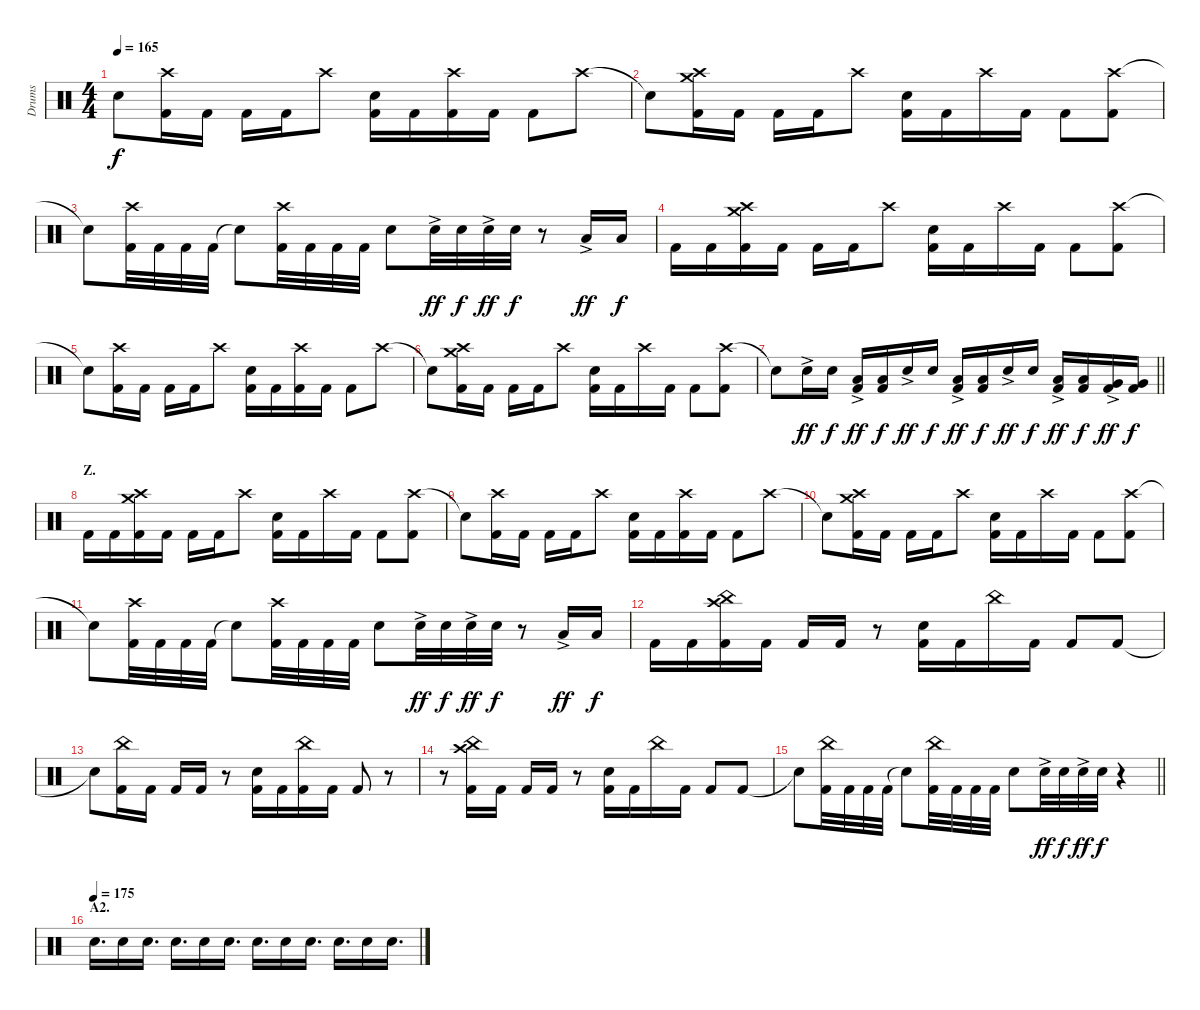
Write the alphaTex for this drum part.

\track ("Drums" "Drums") {instrument percussion}
\staff {score}
\articulation defaults
\ts (4 4)
\tempo 165
\clef neutral
\ks c "Snare (hit)"{t}.8{dy f}
("Crash high (hit)" "Kick (hit) 2").16 "Kick (hit) 2".16 "Kick (hit) 2".16 "Kick (hit) 2".16 "Crash high (hit)".8 ("Electric Snare (hit)" "Kick (hit) 2").16 "Kick (hit) 2".16 ("Crash high (hit)" "Kick (hit) 2").16 "Kick (hit) 2".16 "Kick (hit) 2".8 "Crash high (hit)".8 |
"Snare (hit)"{t}.8 ("Crash medium (hit)" "Crash high (hit)" "Kick (hit) 2").16 "Kick (hit) 2".16 "Kick (hit) 2".16 "Kick (hit) 2".16 "Crash high (hit)".8 ("Electric Snare (hit)" "Kick (hit) 2").16 "Kick (hit) 2".16 "Crash high (hit)".16 "Kick (hit) 2".16 "Kick (hit) 2".8 ("Crash high (hit)" "Kick (hit) 2").8 |
"Snare (hit)"{t}.8 ("Crash high (hit)" "Kick (hit) 2").32 "Kick (hit) 2".32 "Kick (hit) 2".32 "Kick (hit) 2".32 "Snare (hit)"{t}.8 ("Crash high (hit)" "Kick (hit) 2").32 "Kick (hit) 2".32 "Kick (hit) 2".32 "Kick (hit) 2".32 "Electric Snare (hit)".8 "Electric Snare (hit)"{ac}.32{dy ff} "Electric Snare (hit)".32{dy f} "Electric Snare (hit)"{ac}.32{dy ff} "Electric Snare (hit)".32{dy f} r.8 "Low Tom (hit)"{ac}.16{dy ff} "Low Tom (hit)".16{dy f} |
"Kick (hit) 2".16 "Kick (hit) 2".16 ("Crash medium (hit)" "Crash high (hit)" "Kick (hit) 2").16 "Kick (hit) 2".16 "Kick (hit) 2".16 "Kick (hit) 2".16 "Crash high (hit)".8 ("Electric Snare (hit)" "Kick (hit) 2").16 "Kick (hit) 2".16 "Crash high (hit)".16 "Kick (hit) 2".16 "Kick (hit) 2".8 ("Crash high (hit)" "Kick (hit) 2").8 |
"Snare (hit)"{t}.8 ("Crash high (hit)" "Kick (hit) 2").16 "Kick (hit) 2".16 "Kick (hit) 2".16 "Kick (hit) 2".16 "Crash high (hit)".8 ("Electric Snare (hit)" "Kick (hit) 2").16 "Kick (hit) 2".16 ("Crash high (hit)" "Kick (hit) 2").16 "Kick (hit) 2".16 "Kick (hit) 2".8 "Crash high (hit)".8 |
"Snare (hit)"{t}.8 ("Crash medium (hit)" "Crash high (hit)" "Kick (hit) 2").16 "Kick (hit) 2".16 "Kick (hit) 2".16 "Kick (hit) 2".16 "Crash high (hit)".8 ("Electric Snare (hit)" "Kick (hit) 2").16 "Kick (hit) 2".16 "Crash high (hit)".16 "Kick (hit) 2".16 "Kick (hit) 2".8 ("Crash high (hit)" "Kick (hit) 2").8 |
\barLineRight lightlight "Snare (hit)"{t}.8 "Electric Snare (hit)"{ac}.16{dy ff} "Electric Snare (hit)".16{dy f}
("Low Tom (hit)"{ac} "Kick (hit) 2").16{dy ff} ("Low Tom (hit)" "Kick (hit) 2").16{dy f} "Electric Snare (hit)"{ac}.16{dy ff} "Electric Snare (hit)".16{dy f} ("Low Tom (hit)"{ac} "Kick (hit) 2").16{dy ff} ("Low Tom (hit)" "Kick (hit) 2").16{dy f} "Electric Snare (hit)"{ac}.16{dy ff} "Electric Snare (hit)".16{dy f} ("Low Tom (hit)"{ac} "Kick (hit) 2").16{dy ff} ("Low Tom (hit)" "Kick (hit) 2").16{dy f} ("Very Low Tom (hit)"{ac} "Kick (hit) 2").16{dy ff} ("Very Low Tom (hit)" "Kick (hit) 2").16{dy f} |
\section ("" "Z.")
"Kick (hit) 2".16 "Kick (hit) 2".16 ("Crash medium (hit)" "Crash high (hit)" "Kick (hit) 2").16 "Kick (hit) 2".16 "Kick (hit) 2".16 "Kick (hit) 2".16 "Crash high (hit)".8 ("Electric Snare (hit)" "Kick (hit) 2").16 "Kick (hit) 2".16 "Crash high (hit)".16 "Kick (hit) 2".16 "Kick (hit) 2".8 ("Crash high (hit)" "Kick (hit) 2").8 |
"Snare (hit)"{t}.8 ("Crash high (hit)" "Kick (hit) 2").16 "Kick (hit) 2".16 "Kick (hit) 2".16 "Kick (hit) 2".16 "Crash high (hit)".8 ("Electric Snare (hit)" "Kick (hit) 2").16 "Kick (hit) 2".16 ("Crash high (hit)" "Kick (hit) 2").16 "Kick (hit) 2".16 "Kick (hit) 2".8 "Crash high (hit)".8 |
"Snare (hit)"{t}.8 ("Crash medium (hit)" "Crash high (hit)" "Kick (hit) 2").16 "Kick (hit) 2".16 "Kick (hit) 2".16 "Kick (hit) 2".16 "Crash high (hit)".8 ("Electric Snare (hit)" "Kick (hit) 2").16 "Kick (hit) 2".16 "Crash high (hit)".16 "Kick (hit) 2".16 "Kick (hit) 2".8 ("Crash high (hit)" "Kick (hit) 2").8 |
"Snare (hit)"{t}.8 ("Crash high (hit)" "Kick (hit) 2").32 "Kick (hit) 2".32 "Kick (hit) 2".32 "Kick (hit) 2".32 "Snare (hit)"{t}.8 ("Crash high (hit)" "Kick (hit) 2").32 "Kick (hit) 2".32 "Kick (hit) 2".32 "Kick (hit) 2".32 "Electric Snare (hit)".8 "Electric Snare (hit)"{ac}.32{dy ff} "Electric Snare (hit)".32{dy f} "Electric Snare (hit)"{ac}.32{dy ff} "Electric Snare (hit)".32{dy f} r.8 "Low Tom (hit)"{ac}.16{dy ff} "Low Tom (hit)".16{dy f} |
"Kick (hit) 2".16 "Kick (hit) 2".16 ("China (hit)" "Crash high (hit)" "Kick (hit) 2").16 "Kick (hit) 2".16 "Kick (hit) 2".16 "Kick (hit) 2".16 r.8 ("Electric Snare (hit)" "Kick (hit) 2").16 "Kick (hit) 2".16 "China (hit)".16 "Kick (hit) 2".16 "Kick (hit) 2".8 "Kick (hit) 2".8 |
"Snare (hit)"{t}.8 ("China (hit)" "Kick (hit) 2").16 "Kick (hit) 2".16 "Kick (hit) 2".16 "Kick (hit) 2".16 r.8 ("Electric Snare (hit)" "Kick (hit) 2").16 "Kick (hit) 2".16 ("China (hit)" "Kick (hit) 2").16 "Kick (hit) 2".16 "Kick (hit) 2".8 r.8 |
r.8 ("China (hit)" "Crash high (hit)" "Kick (hit) 2").16 "Kick (hit) 2".16 "Kick (hit) 2".16 "Kick (hit) 2".16 r.8 ("Electric Snare (hit)" "Kick (hit) 2").16 "Kick (hit) 2".16 "China (hit)".16 "Kick (hit) 2".16 "Kick (hit) 2".8 "Kick (hit) 2".8 |
\barLineRight lightlight "Snare (hit)"{t}.8
("China (hit)" "Kick (hit) 2").32 "Kick (hit) 2".32 "Kick (hit) 2".32 "Kick (hit) 2".32 "Snare (hit)"{t}.8 ("China (hit)" "Kick (hit) 2").32 "Kick (hit) 2".32 "Kick (hit) 2".32 "Kick (hit) 2".32 "Electric Snare (hit)".8 "Electric Snare (hit)"{ac}.32{dy ff} "Electric Snare (hit)".32{dy f} "Electric Snare (hit)"{ac}.32{dy ff} "Electric Snare (hit)".32{dy f} r.4 |
\section ("" "A2.")
\tempo (175)
"Electric Snare (hit)".16{d} "Electric Snare (hit)".16 "Electric Snare (hit)".16{d} "Electric Snare (hit)".16{d} "Electric Snare (hit)".16 "Electric Snare (hit)".16{d} "Electric Snare (hit)".16{d} "Electric Snare (hit)".16 "Electric Snare (hit)".16{d} "Electric Snare (hit)".16{d} "Electric Snare (hit)".16 "Electric Snare (hit)".16{d}
